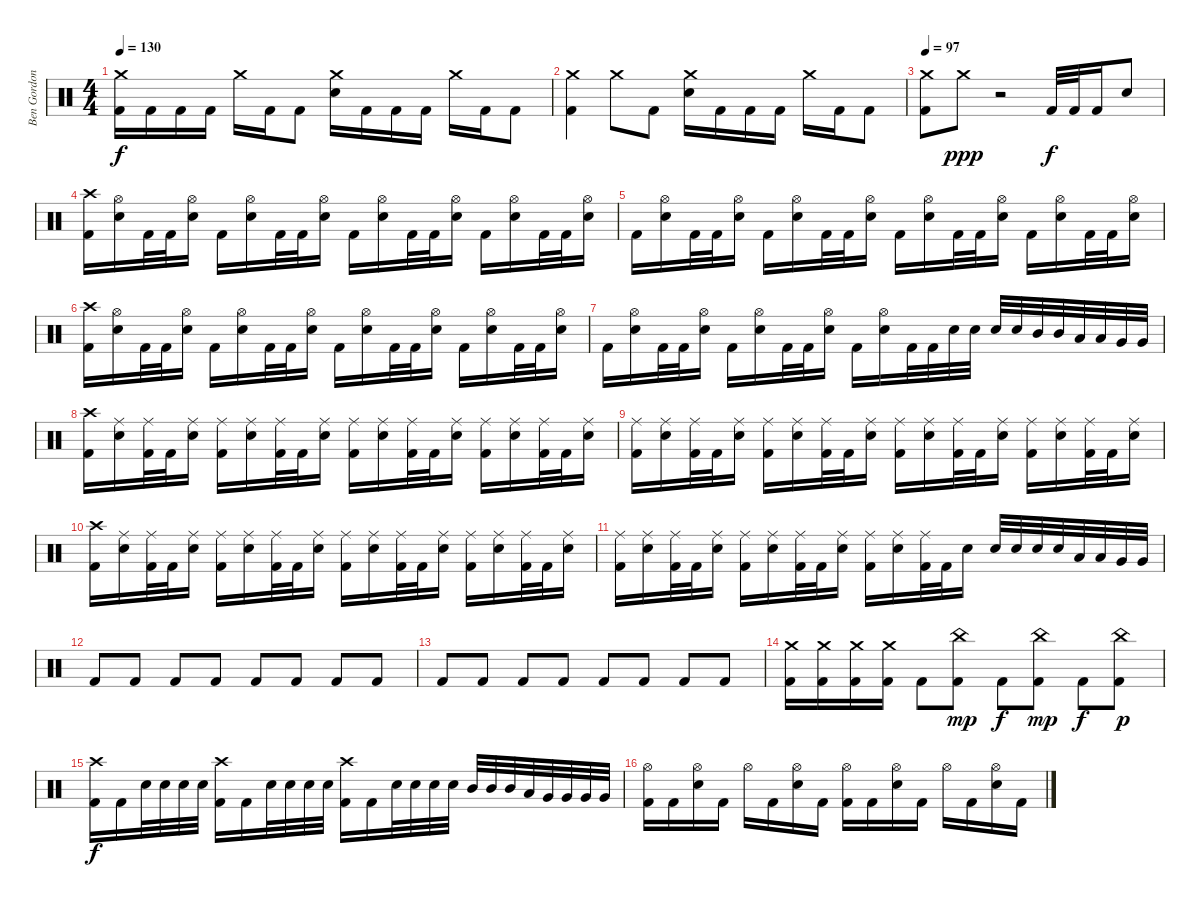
\track ("Ben Gordon" "Ben Gordon") {instrument percussion}
\staff {score}
\articulation defaults
\ts (4 4)
\tempo 130
\clef neutral
\ks c
("Crash medium (hit)" "Kick (hit) 2").16{dy f} "Kick (hit) 2".16 "Kick (hit) 2".16 "Kick (hit) 2".16 "Crash medium (hit)".16 "Kick (hit) 2".16 "Kick (hit) 2".8 ("Crash medium (hit)" "Snare (hit) 2").16 "Kick (hit) 2".16 "Kick (hit) 2".16 "Kick (hit) 2".16 "Crash medium (hit)".16 "Kick (hit) 2".16 "Kick (hit) 2".8 |
("Crash medium (hit)" "Kick (hit) 2").4 "Crash medium (hit)".8 "Kick (hit) 2".8 ("Crash medium (hit)" "Snare (hit) 2").16 "Kick (hit) 2".16 "Kick (hit) 2".16 "Kick (hit) 2".16 "Crash medium (hit)".16 "Kick (hit) 2".16 "Kick (hit) 2".8 |
\tempo 97
("Crash medium (hit)" "Kick (hit) 2").8 "Crash medium (hit)".8{dy ppp} r.2 "Kick (hit) 2".32{dy f} "Kick (hit) 2".32 "Kick (hit) 2".16 "Snare (hit) 2".8 |
("Crash high (hit)" "Kick (hit) 2").16 ("Hi-Hat (open)" "Snare (hit) 2").16 "Kick (hit) 2".32 "Kick (hit) 2".32 ("Hi-Hat (open)" "Snare (hit) 2").16 "Kick (hit) 2".16 ("Hi-Hat (open)" "Snare (hit) 2").16 "Kick (hit) 2".32 "Kick (hit) 2".32 ("Hi-Hat (open)" "Snare (hit) 2").16 "Kick (hit) 2".16 ("Hi-Hat (open)" "Snare (hit) 2").16 "Kick (hit) 2".32 "Kick (hit) 2".32 ("Hi-Hat (open)" "Snare (hit) 2").16 "Kick (hit) 2".16 ("Hi-Hat (open)" "Snare (hit) 2").16 "Kick (hit) 2".32 "Kick (hit) 2".32 ("Hi-Hat (open)" "Snare (hit) 2").16 |
"Kick (hit) 2".16 ("Hi-Hat (open)" "Snare (hit) 2").16 "Kick (hit) 2".32 "Kick (hit) 2".32 ("Hi-Hat (open)" "Snare (hit) 2").16 "Kick (hit) 2".16 ("Hi-Hat (open)" "Snare (hit) 2").16 "Kick (hit) 2".32 "Kick (hit) 2".32 ("Hi-Hat (open)" "Snare (hit) 2").16 "Kick (hit) 2".16 ("Hi-Hat (open)" "Snare (hit) 2").16 "Kick (hit) 2".32 "Kick (hit) 2".32 ("Hi-Hat (open)" "Snare (hit) 2").16 "Kick (hit) 2".16 ("Hi-Hat (open)" "Snare (hit) 2").16 "Kick (hit) 2".32 "Kick (hit) 2".32 ("Hi-Hat (open)" "Snare (hit) 2").16 |
("Crash high (hit)" "Kick (hit) 2").16 ("Hi-Hat (open)" "Snare (hit) 2").16 "Kick (hit) 2".32 "Kick (hit) 2".32 ("Hi-Hat (open)" "Snare (hit) 2").16 "Kick (hit) 2".16 ("Hi-Hat (open)" "Snare (hit) 2").16 "Kick (hit) 2".32 "Kick (hit) 2".32 ("Hi-Hat (open)" "Snare (hit) 2").16 "Kick (hit) 2".16 ("Hi-Hat (open)" "Snare (hit) 2").16 "Kick (hit) 2".32 "Kick (hit) 2".32 ("Hi-Hat (open)" "Snare (hit) 2").16 "Kick (hit) 2".16 ("Hi-Hat (open)" "Snare (hit) 2").16 "Kick (hit) 2".32 "Kick (hit) 2".32 ("Hi-Hat (open)" "Snare (hit) 2").16 |
"Kick (hit) 2".16 ("Hi-Hat (open)" "Snare (hit) 2").16 "Kick (hit) 2".32 "Kick (hit) 2".32 ("Hi-Hat (open)" "Snare (hit) 2").16 "Kick (hit) 2".16 ("Hi-Hat (open)" "Snare (hit) 2").16 "Kick (hit) 2".32 "Kick (hit) 2".32 ("Hi-Hat (open)" "Snare (hit) 2").16 "Kick (hit) 2".16 ("Hi-Hat (open)" "Snare (hit) 2").16 "Kick (hit) 2".32 "Kick (hit) 2".32 "Snare (hit) 2".32 "Snare (hit) 2".32 "Snare (hit) 2".32 "Snare (hit) 2".32 "Mid Tom (hit)".32 "Mid Tom (hit)".32 "Low Tom (hit)".32 "Low Tom (hit)".32 "Very Low Tom (hit)".32 "Very Low Tom (hit)".32 |
("Crash high (hit)" "Kick (hit) 2").16 ("Ride (middle)" "Snare (hit) 2").16 ("Ride (middle)" "Kick (hit) 2").32 "Kick (hit) 2".32 ("Ride (middle)" "Snare (hit) 2").16 ("Ride (middle)" "Kick (hit) 2").16 ("Ride (middle)" "Snare (hit) 2").16 ("Ride (middle)" "Kick (hit) 2").32 "Kick (hit) 2".32 ("Ride (middle)" "Snare (hit) 2").16 ("Ride (middle)" "Kick (hit) 2").16 ("Ride (middle)" "Snare (hit) 2").16 ("Ride (middle)" "Kick (hit) 2").32 "Kick (hit) 2".32 ("Ride (middle)" "Snare (hit) 2").16 ("Ride (middle)" "Kick (hit) 2").16 ("Ride (middle)" "Snare (hit) 2").16 ("Ride (middle)" "Kick (hit) 2").32 "Kick (hit) 2".32 ("Ride (middle)" "Snare (hit) 2").16 |
("Ride (middle)" "Kick (hit) 2").16 ("Ride (middle)" "Snare (hit) 2").16 ("Ride (middle)" "Kick (hit) 2").32 "Kick (hit) 2".32 ("Ride (middle)" "Snare (hit) 2").16 ("Ride (middle)" "Kick (hit) 2").16 ("Ride (middle)" "Snare (hit) 2").16 ("Ride (middle)" "Kick (hit) 2").32 "Kick (hit) 2".32 ("Ride (middle)" "Snare (hit) 2").16 ("Ride (middle)" "Kick (hit) 2").16 ("Ride (middle)" "Snare (hit) 2").16 ("Ride (middle)" "Kick (hit) 2").32 "Kick (hit) 2".32 ("Ride (middle)" "Snare (hit) 2").16 ("Ride (middle)" "Kick (hit) 2").16 ("Ride (middle)" "Snare (hit) 2").16 ("Ride (middle)" "Kick (hit) 2").32 "Kick (hit) 2".32 ("Ride (middle)" "Snare (hit) 2").16 |
("Crash high (hit)" "Kick (hit) 2").16 ("Ride (middle)" "Snare (hit) 2").16 ("Ride (middle)" "Kick (hit) 2").32 "Kick (hit) 2".32 ("Ride (middle)" "Snare (hit) 2").16 ("Ride (middle)" "Kick (hit) 2").16 ("Ride (middle)" "Snare (hit) 2").16 ("Ride (middle)" "Kick (hit) 2").32 "Kick (hit) 2".32 ("Ride (middle)" "Snare (hit) 2").16 ("Ride (middle)" "Kick (hit) 2").16 ("Ride (middle)" "Snare (hit) 2").16 ("Ride (middle)" "Kick (hit) 2").32 "Kick (hit) 2".32 ("Ride (middle)" "Snare (hit) 2").16 ("Ride (middle)" "Kick (hit) 2").16 ("Ride (middle)" "Snare (hit) 2").16 ("Ride (middle)" "Kick (hit) 2").32 "Kick (hit) 2".32 ("Ride (middle)" "Snare (hit) 2").16 |
("Ride (middle)" "Kick (hit) 2").16 ("Ride (middle)" "Snare (hit) 2").16 ("Ride (middle)" "Kick (hit) 2").32 "Kick (hit) 2".32 ("Ride (middle)" "Snare (hit) 2").16 ("Ride (middle)" "Kick (hit) 2").16 ("Ride (middle)" "Snare (hit) 2").16 ("Ride (middle)" "Kick (hit) 2").32 "Kick (hit) 2".32 ("Ride (middle)" "Snare (hit) 2").16 ("Ride (middle)" "Kick (hit) 2").16 ("Ride (middle)" "Snare (hit) 2").16 ("Ride (middle)" "Kick (hit) 2").32 "Kick (hit) 2".32 "Snare (hit) 2".16 "Snare (hit) 2".32 "Snare (hit) 2".32 "Snare (hit) 2".32 "Snare (hit) 2".32 "Low Tom (hit)".32 "Low Tom (hit)".32 "Very Low Tom (hit)".32 "Very Low Tom (hit)".32 |
"Kick (hit) 2".8 "Kick (hit) 2".8 "Kick (hit) 2".8 "Kick (hit) 2".8 "Kick (hit) 2".8 "Kick (hit) 2".8 "Kick (hit) 2".8 "Kick (hit) 2".8 |
"Kick (hit) 2".8 "Kick (hit) 2".8 "Kick (hit) 2".8 "Kick (hit) 2".8 "Kick (hit) 2".8 "Kick (hit) 2".8 "Kick (hit) 2".8 "Kick (hit) 2".8 |
("Crash medium (hit)" "Kick (hit) 2").16 ("Crash medium (hit)" "Kick (hit) 2").16 ("Crash medium (hit)" "Kick (hit) 2").16 ("Crash medium (hit)" "Kick (hit) 2").16 "Kick (hit) 2".8 ("China (hit)" "Kick (hit) 2").8{dy mp} "Kick (hit) 2".8{dy f} ("China (hit)" "Kick (hit) 2").8{dy mp} "Kick (hit) 2".8{dy f} ("China (hit)" "Kick (hit) 2").8{dy p} |
("Crash high (hit)" "Kick (hit) 2").16{dy f} "Kick (hit) 2".16 "Snare (hit) 2".32 "Snare (hit) 2".32 "Snare (hit) 2".32 "Snare (hit) 2".32 ("Crash high (hit)" "Kick (hit) 2").16 "Kick (hit) 2".16 "Snare (hit) 2".32 "Snare (hit) 2".32 "Snare (hit) 2".32 "Snare (hit) 2".32 ("Crash high (hit)" "Kick (hit) 2").16 "Kick (hit) 2".16 "Snare (hit) 2".32 "Snare (hit) 2".32 "Snare (hit) 2".32 "Snare (hit) 2".32 "Mid Tom (hit)".32 "Mid Tom (hit)".32 "Mid Tom (hit)".32 "Low Tom (hit)".32 "Very Low Tom (hit)".32 "Very Low Tom (hit)".32 "Very Low Tom (hit)".32 "Very Low Tom (hit)".32 |
("Hi-Hat (open)" "Kick (hit) 2").16 "Kick (hit) 2".16 ("Hi-Hat (open)" "Snare (hit) 2").16 "Kick (hit) 2".16 "Hi-Hat (open)".16 "Kick (hit) 2".16 ("Hi-Hat (open)" "Snare (hit) 2").16 "Kick (hit) 2".16 ("Hi-Hat (open)" "Kick (hit) 2").16 "Kick (hit) 2".16 ("Hi-Hat (open)" "Snare (hit) 2").16 "Kick (hit) 2".16 "Hi-Hat (open)".16 "Kick (hit) 2".16 ("Hi-Hat (open)" "Snare (hit) 2").16 "Kick (hit) 2".16
